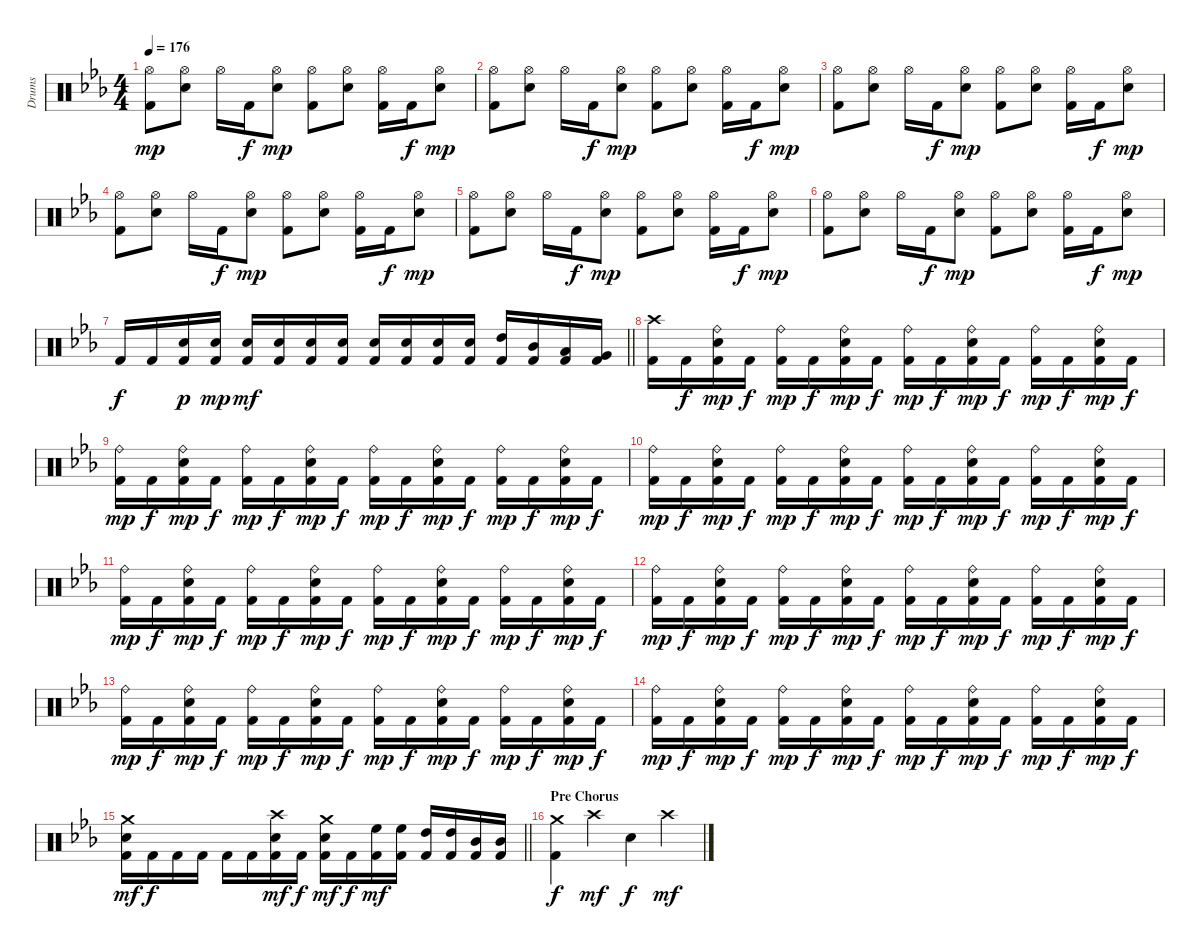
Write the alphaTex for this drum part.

\track ("Drums" "Drums") {instrument percussion}
\staff {score}
\articulation defaults
\ts (4 4)
\tempo 176
\clef neutral
\ks cminor
("Hi-Hat (open)" "Kick (hit) 2").8{dy mp} ("Hi-Hat (open)" "Electric Snare (hit)").8 "Hi-Hat (open)".16 "Kick (hit) 2".16{dy f} ("Hi-Hat (open)" "Electric Snare (hit)").8{dy mp} ("Hi-Hat (open)" "Kick (hit) 2").8 ("Hi-Hat (open)" "Electric Snare (hit)").8 ("Hi-Hat (open)" "Kick (hit) 2").16 "Kick (hit) 2".16{dy f} ("Hi-Hat (open)" "Electric Snare (hit)").8{dy mp} |
("Hi-Hat (open)" "Kick (hit) 2").8 ("Hi-Hat (open)" "Electric Snare (hit)").8 "Hi-Hat (open)".16 "Kick (hit) 2".16{dy f} ("Hi-Hat (open)" "Electric Snare (hit)").8{dy mp} ("Hi-Hat (open)" "Kick (hit) 2").8 ("Hi-Hat (open)" "Electric Snare (hit)").8 ("Hi-Hat (open)" "Kick (hit) 2").16 "Kick (hit) 2".16{dy f} ("Hi-Hat (open)" "Electric Snare (hit)").8{dy mp} |
("Hi-Hat (open)" "Kick (hit) 2").8 ("Hi-Hat (open)" "Electric Snare (hit)").8 "Hi-Hat (open)".16 "Kick (hit) 2".16{dy f} ("Hi-Hat (open)" "Electric Snare (hit)").8{dy mp} ("Hi-Hat (open)" "Kick (hit) 2").8 ("Hi-Hat (open)" "Electric Snare (hit)").8 ("Hi-Hat (open)" "Kick (hit) 2").16 "Kick (hit) 2".16{dy f} ("Hi-Hat (open)" "Electric Snare (hit)").8{dy mp} |
("Hi-Hat (open)" "Kick (hit) 2").8 ("Hi-Hat (open)" "Electric Snare (hit)").8 "Hi-Hat (open)".16 "Kick (hit) 2".16{dy f} ("Hi-Hat (open)" "Electric Snare (hit)").8{dy mp} ("Hi-Hat (open)" "Kick (hit) 2").8 ("Hi-Hat (open)" "Electric Snare (hit)").8 ("Hi-Hat (open)" "Kick (hit) 2").16 "Kick (hit) 2".16{dy f} ("Hi-Hat (open)" "Electric Snare (hit)").8{dy mp} |
("Hi-Hat (open)" "Kick (hit) 2").8 ("Hi-Hat (open)" "Electric Snare (hit)").8 "Hi-Hat (open)".16 "Kick (hit) 2".16{dy f} ("Hi-Hat (open)" "Electric Snare (hit)").8{dy mp} ("Hi-Hat (open)" "Kick (hit) 2").8 ("Hi-Hat (open)" "Electric Snare (hit)").8 ("Hi-Hat (open)" "Kick (hit) 2").16 "Kick (hit) 2".16{dy f} ("Hi-Hat (open)" "Electric Snare (hit)").8{dy mp} |
("Hi-Hat (open)" "Kick (hit) 2").8 ("Hi-Hat (open)" "Electric Snare (hit)").8 "Hi-Hat (open)".16 "Kick (hit) 2".16{dy f} ("Hi-Hat (open)" "Electric Snare (hit)").8{dy mp} ("Hi-Hat (open)" "Kick (hit) 2").8 ("Hi-Hat (open)" "Electric Snare (hit)").8 ("Hi-Hat (open)" "Kick (hit) 2").16 "Kick (hit) 2".16{dy f} ("Hi-Hat (open)" "Electric Snare (hit)").8{dy mp} |
\barLineRight lightlight "Kick (hit) 2".16{dy f} "Kick (hit) 2".16
("Electric Snare (hit)" "Kick (hit) 2").16{dy p} ("Electric Snare (hit)" "Kick (hit) 2").16{dy mp} ("Electric Snare (hit)" "Kick (hit) 2").16{dy mf} ("Electric Snare (hit)" "Kick (hit) 2").16 ("Electric Snare (hit)" "Kick (hit) 2").16 ("Electric Snare (hit)" "Kick (hit) 2").16 ("Electric Snare (hit)" "Kick (hit) 2").16 ("Electric Snare (hit)" "Kick (hit) 2").16 ("Electric Snare (hit)" "Kick (hit) 2").16 ("Electric Snare (hit)" "Kick (hit) 2").16 ("High Tom (hit)" "Kick (hit) 2").16 ("Mid Tom (hit)" "Kick (hit) 2").16 ("Low Tom (hit)" "Kick (hit) 2").16 ("Very Low Tom (hit)" "Kick (hit) 2").16 |
\section ("" "")
("Crash high (hit)" "Kick (hit) 2").16 "Kick (hit) 2".16{dy f} ("Ride (bell)" "Electric Snare (hit)" "Kick (hit) 2").16{dy mp} "Kick (hit) 2".16{dy f} ("Ride (bell)" "Kick (hit) 2").16{dy mp} "Kick (hit) 2".16{dy f} ("Ride (bell)" "Electric Snare (hit)" "Kick (hit) 2").16{dy mp} "Kick (hit) 2".16{dy f} ("Ride (bell)" "Kick (hit) 2").16{dy mp} "Kick (hit) 2".16{dy f} ("Ride (bell)" "Electric Snare (hit)" "Kick (hit) 2").16{dy mp} "Kick (hit) 2".16{dy f} ("Ride (bell)" "Kick (hit) 2").16{dy mp} "Kick (hit) 2".16{dy f} ("Ride (bell)" "Electric Snare (hit)" "Kick (hit) 2").16{dy mp} "Kick (hit) 2".16{dy f} |
("Ride (bell)" "Kick (hit) 2").16{dy mp} "Kick (hit) 2".16{dy f} ("Ride (bell)" "Electric Snare (hit)" "Kick (hit) 2").16{dy mp} "Kick (hit) 2".16{dy f} ("Ride (bell)" "Kick (hit) 2").16{dy mp} "Kick (hit) 2".16{dy f} ("Ride (bell)" "Electric Snare (hit)" "Kick (hit) 2").16{dy mp} "Kick (hit) 2".16{dy f} ("Ride (bell)" "Kick (hit) 2").16{dy mp} "Kick (hit) 2".16{dy f} ("Ride (bell)" "Electric Snare (hit)" "Kick (hit) 2").16{dy mp} "Kick (hit) 2".16{dy f} ("Ride (bell)" "Kick (hit) 2").16{dy mp} "Kick (hit) 2".16{dy f} ("Ride (bell)" "Electric Snare (hit)" "Kick (hit) 2").16{dy mp} "Kick (hit) 2".16{dy f} |
("Ride (bell)" "Kick (hit) 2").16{dy mp} "Kick (hit) 2".16{dy f} ("Ride (bell)" "Electric Snare (hit)" "Kick (hit) 2").16{dy mp} "Kick (hit) 2".16{dy f} ("Ride (bell)" "Kick (hit) 2").16{dy mp} "Kick (hit) 2".16{dy f} ("Ride (bell)" "Electric Snare (hit)" "Kick (hit) 2").16{dy mp} "Kick (hit) 2".16{dy f} ("Ride (bell)" "Kick (hit) 2").16{dy mp} "Kick (hit) 2".16{dy f} ("Ride (bell)" "Electric Snare (hit)" "Kick (hit) 2").16{dy mp} "Kick (hit) 2".16{dy f} ("Ride (bell)" "Kick (hit) 2").16{dy mp} "Kick (hit) 2".16{dy f} ("Ride (bell)" "Electric Snare (hit)" "Kick (hit) 2").16{dy mp} "Kick (hit) 2".16{dy f} |
("Ride (bell)" "Kick (hit) 2").16{dy mp} "Kick (hit) 2".16{dy f} ("Ride (bell)" "Electric Snare (hit)" "Kick (hit) 2").16{dy mp} "Kick (hit) 2".16{dy f} ("Ride (bell)" "Kick (hit) 2").16{dy mp} "Kick (hit) 2".16{dy f} ("Ride (bell)" "Electric Snare (hit)" "Kick (hit) 2").16{dy mp} "Kick (hit) 2".16{dy f} ("Ride (bell)" "Kick (hit) 2").16{dy mp} "Kick (hit) 2".16{dy f} ("Ride (bell)" "Electric Snare (hit)" "Kick (hit) 2").16{dy mp} "Kick (hit) 2".16{dy f} ("Ride (bell)" "Kick (hit) 2").16{dy mp} "Kick (hit) 2".16{dy f} ("Ride (bell)" "Electric Snare (hit)" "Kick (hit) 2").16{dy mp} "Kick (hit) 2".16{dy f} |
("Ride (bell)" "Kick (hit) 2").16{dy mp} "Kick (hit) 2".16{dy f} ("Ride (bell)" "Electric Snare (hit)" "Kick (hit) 2").16{dy mp} "Kick (hit) 2".16{dy f} ("Ride (bell)" "Kick (hit) 2").16{dy mp} "Kick (hit) 2".16{dy f} ("Ride (bell)" "Electric Snare (hit)" "Kick (hit) 2").16{dy mp} "Kick (hit) 2".16{dy f} ("Ride (bell)" "Kick (hit) 2").16{dy mp} "Kick (hit) 2".16{dy f} ("Ride (bell)" "Electric Snare (hit)" "Kick (hit) 2").16{dy mp} "Kick (hit) 2".16{dy f} ("Ride (bell)" "Kick (hit) 2").16{dy mp} "Kick (hit) 2".16{dy f} ("Ride (bell)" "Electric Snare (hit)" "Kick (hit) 2").16{dy mp} "Kick (hit) 2".16{dy f} |
("Ride (bell)" "Kick (hit) 2").16{dy mp} "Kick (hit) 2".16{dy f} ("Ride (bell)" "Electric Snare (hit)" "Kick (hit) 2").16{dy mp} "Kick (hit) 2".16{dy f} ("Ride (bell)" "Kick (hit) 2").16{dy mp} "Kick (hit) 2".16{dy f} ("Ride (bell)" "Electric Snare (hit)" "Kick (hit) 2").16{dy mp} "Kick (hit) 2".16{dy f} ("Ride (bell)" "Kick (hit) 2").16{dy mp} "Kick (hit) 2".16{dy f} ("Ride (bell)" "Electric Snare (hit)" "Kick (hit) 2").16{dy mp} "Kick (hit) 2".16{dy f} ("Ride (bell)" "Kick (hit) 2").16{dy mp} "Kick (hit) 2".16{dy f} ("Ride (bell)" "Electric Snare (hit)" "Kick (hit) 2").16{dy mp} "Kick (hit) 2".16{dy f} |
("Ride (bell)" "Kick (hit) 2").16{dy mp} "Kick (hit) 2".16{dy f} ("Ride (bell)" "Electric Snare (hit)" "Kick (hit) 2").16{dy mp} "Kick (hit) 2".16{dy f} ("Ride (bell)" "Kick (hit) 2").16{dy mp} "Kick (hit) 2".16{dy f} ("Ride (bell)" "Electric Snare (hit)" "Kick (hit) 2").16{dy mp} "Kick (hit) 2".16{dy f} ("Ride (bell)" "Kick (hit) 2").16{dy mp} "Kick (hit) 2".16{dy f} ("Ride (bell)" "Electric Snare (hit)" "Kick (hit) 2").16{dy mp} "Kick (hit) 2".16{dy f} ("Ride (bell)" "Kick (hit) 2").16{dy mp} "Kick (hit) 2".16{dy f} ("Ride (bell)" "Electric Snare (hit)" "Kick (hit) 2").16{dy mp} "Kick (hit) 2".16{dy f} |
\barLineRight lightlight
("Crash medium (hit)" "Electric Snare (hit)" "Kick (hit) 2").16{dy mf} "Kick (hit) 2".16{dy f} "Kick (hit) 2".16 "Kick (hit) 2".16 "Kick (hit) 2".16 "Kick (hit) 2".16 ("Crash high (hit)" "Electric Snare (hit)" "Kick (hit) 2").16{dy mf} "Kick (hit) 2".16{dy f} ("Crash medium (hit)" "Electric Snare (hit)" "Kick (hit) 2").16{dy mf} "Kick (hit) 2".16{dy f} ("High Floor Tom (hit)" "Kick (hit) 2").16{dy mf} ("High Floor Tom (hit)" "Kick (hit) 2").16 ("High Tom (hit)" "Kick (hit) 2").16 ("High Tom (hit)" "Kick (hit) 2").16 ("Mid Tom (hit)" "Kick (hit) 2").16 ("Mid Tom (hit)" "Kick (hit) 2").16 |
\section ("" "Pre Chorus")
("Crash medium (hit)" "Kick (hit) 2").4{dy f} "Crash high (hit)".4{dy mf} "Electric Snare (hit)".4{dy f} "Crash high (hit)".4{dy mf}
